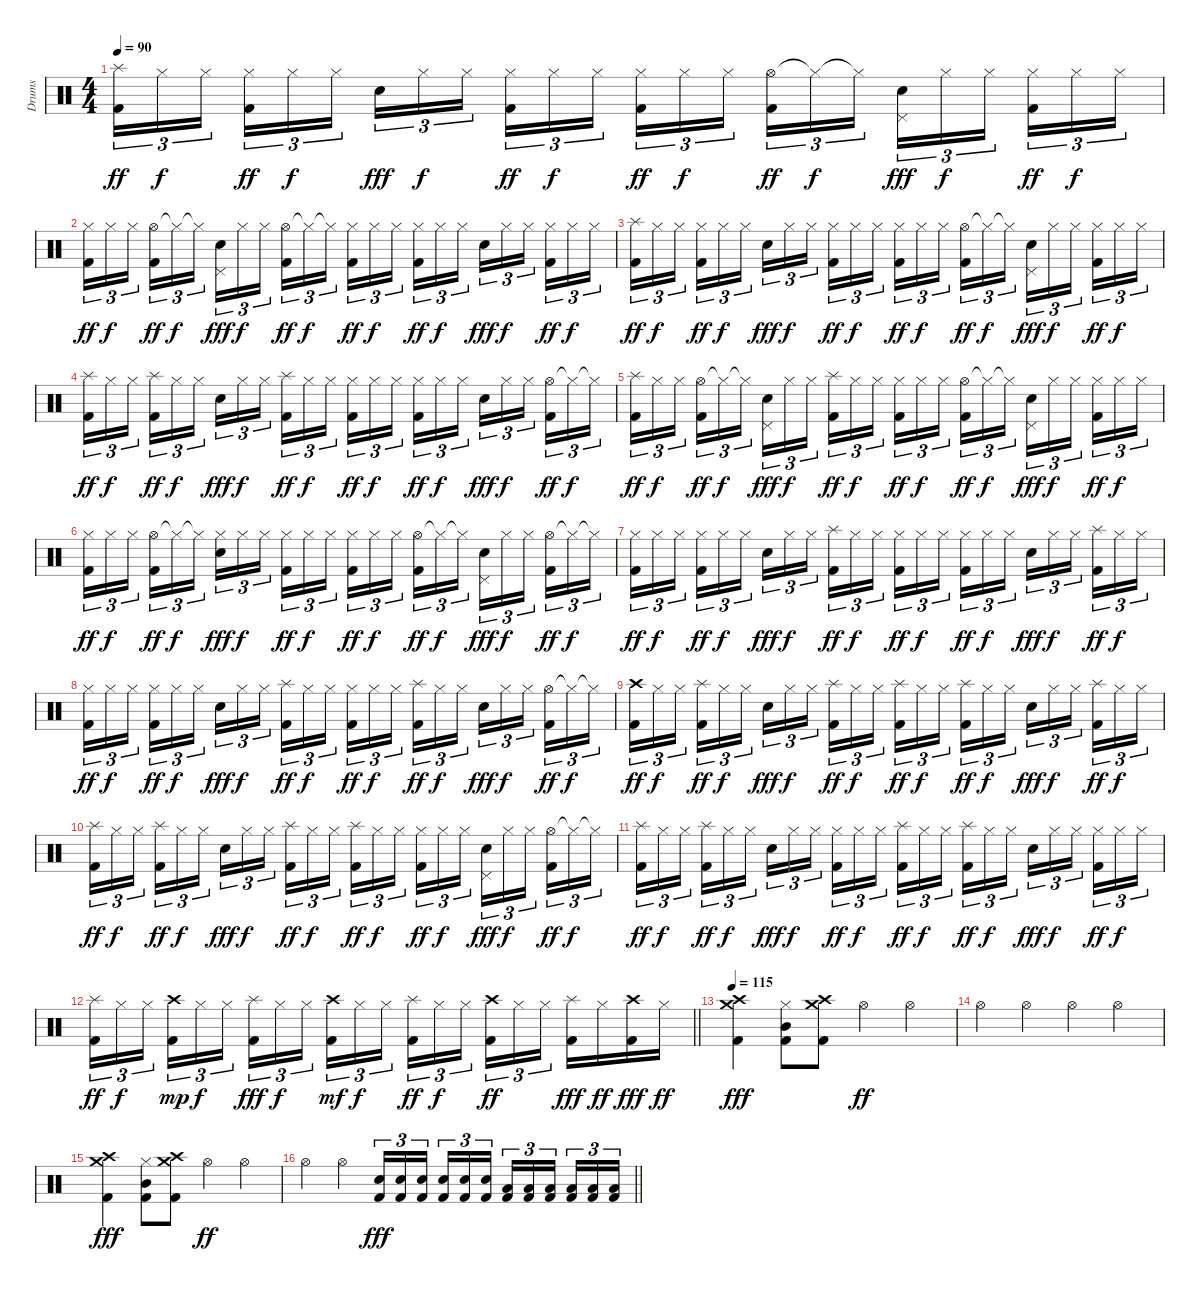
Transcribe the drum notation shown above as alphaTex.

\track ("Drums" "Drums") {instrument percussion}
\staff {score}
\articulation defaults
\ts (4 4)
\tempo 90
\clef neutral
\ks c
("Splash (hit)" "Kick (hit) 2").16{tu (3 2) dy ff} "Hi-Hat (closed)".16{tu (3 2) dy f} "Hi-Hat (closed)".16{tu (3 2) beam splitsecondary} ("Hi-Hat (closed)" "Kick (hit) 2").16{tu (3 2) dy ff} "Hi-Hat (closed)".16{tu (3 2) dy f} "Hi-Hat (closed)".16{tu (3 2)} "Snare (hit) 2".16{tu (3 2) dy fff} "Hi-Hat (closed)".16{tu (3 2) dy f} "Hi-Hat (closed)".16{tu (3 2) beam splitsecondary} ("Hi-Hat (closed)" "Kick (hit) 2").16{tu (3 2) dy ff} "Hi-Hat (closed)".16{tu (3 2) dy f} "Hi-Hat (closed)".16{tu (3 2)} ("Hi-Hat (closed)" "Kick (hit) 2").16{tu (3 2) dy ff} "Hi-Hat (closed)".16{tu (3 2) dy f} "Hi-Hat (closed)".16{tu (3 2) beam splitsecondary} ("Hi-Hat (open)" "Kick (hit) 2").16{tu (3 2) dy ff} "Hi-Hat (closed)"{t}.16{tu (3 2) dy f} "Hi-Hat (closed)"{t}.16{tu (3 2)} ("Pedal Hi-Hat (hit)" "Snare (hit) 2").16{tu (3 2) dy fff} "Hi-Hat (closed)".16{tu (3 2) dy f} "Hi-Hat (closed)".16{tu (3 2) beam splitsecondary} ("Hi-Hat (closed)" "Kick (hit) 2").16{tu (3 2) dy ff} "Hi-Hat (closed)".16{tu (3 2) dy f} "Hi-Hat (closed)".16{tu (3 2)} |
("Hi-Hat (closed)" "Kick (hit) 2").16{tu (3 2) dy ff} "Hi-Hat (closed)".16{tu (3 2) dy f} "Hi-Hat (closed)".16{tu (3 2) beam splitsecondary} ("Hi-Hat (open)" "Kick (hit) 2").16{tu (3 2) dy ff} "Hi-Hat (closed)"{t}.16{tu (3 2) dy f} "Hi-Hat (closed)"{t}.16{tu (3 2)} ("Pedal Hi-Hat (hit)" "Snare (hit) 2").16{tu (3 2) dy fff} "Hi-Hat (closed)".16{tu (3 2) dy f} "Hi-Hat (closed)".16{tu (3 2) beam splitsecondary} ("Hi-Hat (open)" "Kick (hit) 2").16{tu (3 2) dy ff} "Hi-Hat (closed)"{t}.16{tu (3 2) dy f} "Hi-Hat (closed)"{t}.16{tu (3 2)} ("Hi-Hat (closed)" "Kick (hit) 2").16{tu (3 2) dy ff} "Hi-Hat (closed)".16{tu (3 2) dy f} "Hi-Hat (closed)".16{tu (3 2) beam splitsecondary} ("Hi-Hat (closed)" "Kick (hit) 2").16{tu (3 2) dy ff} "Hi-Hat (closed)".16{tu (3 2) dy f} "Hi-Hat (closed)".16{tu (3 2)} "Snare (hit) 2".16{tu (3 2) dy fff} "Hi-Hat (closed)".16{tu (3 2) dy f} "Hi-Hat (closed)".16{tu (3 2) beam splitsecondary} ("Hi-Hat (closed)" "Kick (hit) 2").16{tu (3 2) dy ff} "Hi-Hat (closed)".16{tu (3 2) dy f} "Hi-Hat (closed)".16{tu (3 2)} |
("Splash (hit)" "Kick (hit) 2").16{tu (3 2) dy ff} "Hi-Hat (closed)".16{tu (3 2) dy f} "Hi-Hat (closed)".16{tu (3 2) beam splitsecondary} ("Hi-Hat (closed)" "Kick (hit) 2").16{tu (3 2) dy ff} "Hi-Hat (closed)".16{tu (3 2) dy f} "Hi-Hat (closed)".16{tu (3 2)} "Snare (hit) 2".16{tu (3 2) dy fff} "Hi-Hat (closed)".16{tu (3 2) dy f} "Hi-Hat (closed)".16{tu (3 2) beam splitsecondary} ("Hi-Hat (closed)" "Kick (hit) 2").16{tu (3 2) dy ff} "Hi-Hat (closed)".16{tu (3 2) dy f} "Hi-Hat (closed)".16{tu (3 2)} ("Hi-Hat (closed)" "Kick (hit) 2").16{tu (3 2) dy ff} "Hi-Hat (closed)".16{tu (3 2) dy f} "Hi-Hat (closed)".16{tu (3 2) beam splitsecondary} ("Hi-Hat (open)" "Kick (hit) 2").16{tu (3 2) dy ff} "Hi-Hat (closed)"{t}.16{tu (3 2) dy f} "Hi-Hat (closed)"{t}.16{tu (3 2)} ("Pedal Hi-Hat (hit)" "Snare (hit) 2").16{tu (3 2) dy fff} "Hi-Hat (closed)".16{tu (3 2) dy f} "Hi-Hat (closed)".16{tu (3 2) beam splitsecondary} ("Hi-Hat (closed)" "Kick (hit) 2").16{tu (3 2) dy ff} "Hi-Hat (closed)".16{tu (3 2) dy f} "Hi-Hat (closed)".16{tu (3 2)} |
("Splash (hit)" "Kick (hit) 2").16{tu (3 2) dy ff} "Hi-Hat (closed)".16{tu (3 2) dy f} "Hi-Hat (closed)".16{tu (3 2) beam splitsecondary} ("Splash (hit)" "Kick (hit) 2").16{tu (3 2) dy ff} "Hi-Hat (closed)".16{tu (3 2) dy f} "Hi-Hat (closed)".16{tu (3 2)} "Snare (hit) 2".16{tu (3 2) dy fff} "Hi-Hat (closed)".16{tu (3 2) dy f} "Hi-Hat (closed)".16{tu (3 2) beam splitsecondary} ("Splash (hit)" "Kick (hit) 2").16{tu (3 2) dy ff} "Hi-Hat (closed)".16{tu (3 2) dy f} "Hi-Hat (closed)".16{tu (3 2)} ("Hi-Hat (closed)" "Kick (hit) 2").16{tu (3 2) dy ff} "Hi-Hat (closed)".16{tu (3 2) dy f} "Hi-Hat (closed)".16{tu (3 2) beam splitsecondary} ("Hi-Hat (closed)" "Kick (hit) 2").16{tu (3 2) dy ff} "Hi-Hat (closed)".16{tu (3 2) dy f} "Hi-Hat (closed)".16{tu (3 2)} "Snare (hit) 2".16{tu (3 2) dy fff} "Hi-Hat (closed)".16{tu (3 2) dy f} "Hi-Hat (closed)".16{tu (3 2) beam splitsecondary} ("Hi-Hat (open)" "Kick (hit) 2").16{tu (3 2) dy ff} "Hi-Hat (closed)"{t}.16{tu (3 2) dy f} "Hi-Hat (closed)"{t}.16{tu (3 2)} |
("Splash (hit)" "Kick (hit) 2").16{tu (3 2) dy ff} "Hi-Hat (closed)".16{tu (3 2) dy f} "Hi-Hat (closed)".16{tu (3 2) beam splitsecondary} ("Hi-Hat (open)" "Kick (hit) 2").16{tu (3 2) dy ff} "Hi-Hat (closed)"{t}.16{tu (3 2) dy f} "Hi-Hat (closed)"{t}.16{tu (3 2)} ("Pedal Hi-Hat (hit)" "Snare (hit) 2").16{tu (3 2) dy fff} "Hi-Hat (closed)".16{tu (3 2) dy f} "Hi-Hat (closed)".16{tu (3 2) beam splitsecondary} ("Splash (hit)" "Kick (hit) 2").16{tu (3 2) dy ff} "Hi-Hat (closed)".16{tu (3 2) dy f} "Hi-Hat (closed)".16{tu (3 2)} ("Hi-Hat (closed)" "Kick (hit) 2").16{tu (3 2) dy ff} "Hi-Hat (closed)".16{tu (3 2) dy f} "Hi-Hat (closed)".16{tu (3 2) beam splitsecondary} ("Hi-Hat (open)" "Kick (hit) 2").16{tu (3 2) dy ff} "Hi-Hat (closed)"{t}.16{tu (3 2) dy f} "Hi-Hat (closed)"{t}.16{tu (3 2)} ("Pedal Hi-Hat (hit)" "Snare (hit) 2").16{tu (3 2) dy fff} "Hi-Hat (closed)".16{tu (3 2) dy f} "Hi-Hat (closed)".16{tu (3 2) beam splitsecondary} ("Hi-Hat (closed)" "Kick (hit) 2").16{tu (3 2) dy ff} "Hi-Hat (closed)".16{tu (3 2) dy f} "Hi-Hat (closed)".16{tu (3 2)} |
("Hi-Hat (closed)" "Kick (hit) 2").16{tu (3 2) dy ff} "Hi-Hat (closed)".16{tu (3 2) dy f} "Hi-Hat (closed)".16{tu (3 2) beam splitsecondary} ("Hi-Hat (open)" "Kick (hit) 2").16{tu (3 2) dy ff} "Hi-Hat (closed)"{t}.16{tu (3 2) dy f} "Hi-Hat (closed)"{t}.16{tu (3 2)} ("Hi-Hat (closed)" "Snare (hit) 2").16{tu (3 2) dy fff} "Hi-Hat (closed)".16{tu (3 2) dy f} "Hi-Hat (closed)".16{tu (3 2) beam splitsecondary} ("Hi-Hat (closed)" "Kick (hit) 2").16{tu (3 2) dy ff} "Hi-Hat (closed)".16{tu (3 2) dy f} "Hi-Hat (closed)".16{tu (3 2)} ("Hi-Hat (closed)" "Kick (hit) 2").16{tu (3 2) dy ff} "Hi-Hat (closed)".16{tu (3 2) dy f} "Hi-Hat (closed)".16{tu (3 2) beam splitsecondary} ("Hi-Hat (open)" "Kick (hit) 2").16{tu (3 2) dy ff} "Hi-Hat (closed)"{t}.16{tu (3 2) dy f} "Hi-Hat (closed)"{t}.16{tu (3 2)} ("Pedal Hi-Hat (hit)" "Snare (hit) 2").16{tu (3 2) dy fff} "Hi-Hat (closed)".16{tu (3 2) dy f} "Hi-Hat (closed)".16{tu (3 2) beam splitsecondary} ("Hi-Hat (open)" "Kick (hit) 2").16{tu (3 2) dy ff} "Hi-Hat (closed)"{t}.16{tu (3 2) dy f} "Hi-Hat (closed)"{t}.16{tu (3 2)} |
("Hi-Hat (closed)" "Kick (hit) 2").16{tu (3 2) dy ff} "Hi-Hat (closed)".16{tu (3 2) dy f} "Hi-Hat (closed)".16{tu (3 2) beam splitsecondary} ("Hi-Hat (closed)" "Kick (hit) 2").16{tu (3 2) dy ff} "Hi-Hat (closed)".16{tu (3 2) dy f} "Hi-Hat (closed)".16{tu (3 2)} "Snare (hit) 2".16{tu (3 2) dy fff} "Hi-Hat (closed)".16{tu (3 2) dy f} "Hi-Hat (closed)".16{tu (3 2) beam splitsecondary} ("Splash (hit)" "Kick (hit) 2").16{tu (3 2) dy ff} "Hi-Hat (closed)".16{tu (3 2) dy f} "Hi-Hat (closed)".16{tu (3 2)} ("Hi-Hat (closed)" "Kick (hit) 2").16{tu (3 2) dy ff} "Hi-Hat (closed)".16{tu (3 2) dy f} "Hi-Hat (closed)".16{tu (3 2) beam splitsecondary} ("Hi-Hat (closed)" "Kick (hit) 2").16{tu (3 2) dy ff} "Hi-Hat (closed)".16{tu (3 2) dy f} "Hi-Hat (closed)".16{tu (3 2)} "Snare (hit) 2".16{tu (3 2) dy fff} "Hi-Hat (closed)".16{tu (3 2) dy f} "Hi-Hat (closed)".16{tu (3 2) beam splitsecondary} ("Splash (hit)" "Kick (hit) 2").16{tu (3 2) dy ff} "Hi-Hat (closed)".16{tu (3 2) dy f} "Hi-Hat (closed)".16{tu (3 2)} |
("Hi-Hat (closed)" "Kick (hit) 2").16{tu (3 2) dy ff} "Hi-Hat (closed)".16{tu (3 2) dy f} "Hi-Hat (closed)".16{tu (3 2) beam splitsecondary} ("Hi-Hat (closed)" "Kick (hit) 2").16{tu (3 2) dy ff} "Hi-Hat (closed)".16{tu (3 2) dy f} "Hi-Hat (closed)".16{tu (3 2)} "Snare (hit) 2".16{tu (3 2) dy fff} "Hi-Hat (closed)".16{tu (3 2) dy f} "Hi-Hat (closed)".16{tu (3 2) beam splitsecondary} ("Splash (hit)" "Kick (hit) 2").16{tu (3 2) dy ff} "Hi-Hat (closed)".16{tu (3 2) dy f} "Hi-Hat (closed)".16{tu (3 2)} ("Hi-Hat (closed)" "Kick (hit) 2").16{tu (3 2) dy ff} "Hi-Hat (closed)".16{tu (3 2) dy f} "Hi-Hat (closed)".16{tu (3 2) beam splitsecondary} ("Splash (hit)" "Kick (hit) 2").16{tu (3 2) dy ff} "Hi-Hat (closed)".16{tu (3 2) dy f} "Hi-Hat (closed)".16{tu (3 2)} "Snare (hit) 2".16{tu (3 2) dy fff} "Hi-Hat (closed)".16{tu (3 2) dy f} "Hi-Hat (closed)".16{tu (3 2) beam splitsecondary} ("Hi-Hat (open)" "Kick (hit) 2").16{tu (3 2) dy ff} "Hi-Hat (closed)"{t}.16{tu (3 2) dy f} "Hi-Hat (closed)"{t}.16{tu (3 2)} |
("Crash high (hit)" "Kick (hit) 2").16{tu (3 2) dy ff} "Hi-Hat (closed)".16{tu (3 2) dy f} "Hi-Hat (closed)".16{tu (3 2) beam splitsecondary} ("Splash (hit)" "Kick (hit) 2").16{tu (3 2) dy ff} "Hi-Hat (closed)".16{tu (3 2) dy f} "Hi-Hat (closed)".16{tu (3 2)} "Snare (hit) 2".16{tu (3 2) dy fff} "Hi-Hat (closed)".16{tu (3 2) dy f} "Hi-Hat (closed)".16{tu (3 2) beam splitsecondary} ("Splash (hit)" "Kick (hit) 2").16{tu (3 2) dy ff} "Hi-Hat (closed)".16{tu (3 2) dy f} "Hi-Hat (closed)".16{tu (3 2)} ("Splash (hit)" "Kick (hit) 2").16{tu (3 2) dy ff} "Hi-Hat (closed)".16{tu (3 2) dy f} "Hi-Hat (closed)".16{tu (3 2) beam splitsecondary} ("Splash (hit)" "Kick (hit) 2").16{tu (3 2) dy ff} "Hi-Hat (closed)".16{tu (3 2) dy f} "Hi-Hat (closed)".16{tu (3 2)} "Snare (hit) 2".16{tu (3 2) dy fff} "Hi-Hat (closed)".16{tu (3 2) dy f} "Hi-Hat (closed)".16{tu (3 2) beam splitsecondary} ("Splash (hit)" "Kick (hit) 2").16{tu (3 2) dy ff} "Hi-Hat (closed)".16{tu (3 2) dy f} "Hi-Hat (closed)".16{tu (3 2)} |
("Splash (hit)" "Kick (hit) 2").16{tu (3 2) dy ff} "Hi-Hat (closed)".16{tu (3 2) dy f} "Hi-Hat (closed)".16{tu (3 2) beam splitsecondary} ("Splash (hit)" "Kick (hit) 2").16{tu (3 2) dy ff} "Hi-Hat (closed)".16{tu (3 2) dy f} "Hi-Hat (closed)".16{tu (3 2)} "Snare (hit) 2".16{tu (3 2) dy fff} "Hi-Hat (closed)".16{tu (3 2) dy f} "Hi-Hat (closed)".16{tu (3 2) beam splitsecondary} ("Splash (hit)" "Kick (hit) 2").16{tu (3 2) dy ff} "Hi-Hat (closed)".16{tu (3 2) dy f} "Hi-Hat (closed)".16{tu (3 2)} ("Splash (hit)" "Kick (hit) 2").16{tu (3 2) dy ff} "Hi-Hat (closed)".16{tu (3 2) dy f} "Hi-Hat (closed)".16{tu (3 2) beam splitsecondary} ("Hi-Hat (closed)" "Kick (hit) 2").16{tu (3 2) dy ff} "Hi-Hat (closed)".16{tu (3 2) dy f} "Hi-Hat (closed)".16{tu (3 2)} ("Pedal Hi-Hat (hit)" "Snare (hit) 2").16{tu (3 2) dy fff} "Hi-Hat (closed)".16{tu (3 2) dy f} "Hi-Hat (closed)".16{tu (3 2) beam splitsecondary} ("Hi-Hat (open)" "Kick (hit) 2").16{tu (3 2) dy ff} "Hi-Hat (closed)"{t}.16{tu (3 2) dy f} "Hi-Hat (closed)"{t}.16{tu (3 2)} |
("Splash (hit)" "Kick (hit) 2").16{tu (3 2) dy ff} "Hi-Hat (closed)".16{tu (3 2) dy f} "Hi-Hat (closed)".16{tu (3 2) beam splitsecondary} ("Splash (hit)" "Kick (hit) 2").16{tu (3 2) dy ff} "Hi-Hat (closed)".16{tu (3 2) dy f} "Hi-Hat (closed)".16{tu (3 2)} "Snare (hit) 2".16{tu (3 2) dy fff} "Hi-Hat (closed)".16{tu (3 2) dy f} "Hi-Hat (closed)".16{tu (3 2) beam splitsecondary} ("Hi-Hat (closed)" "Kick (hit) 2").16{tu (3 2) dy ff} "Hi-Hat (closed)".16{tu (3 2) dy f} "Hi-Hat (closed)".16{tu (3 2)} ("Splash (hit)" "Kick (hit) 2").16{tu (3 2) dy ff} "Hi-Hat (closed)".16{tu (3 2) dy f} "Hi-Hat (closed)".16{tu (3 2) beam splitsecondary} ("Splash (hit)" "Kick (hit) 2").16{tu (3 2) dy ff} "Hi-Hat (closed)".16{tu (3 2) dy f} "Hi-Hat (closed)".16{tu (3 2)} "Snare (hit) 2".16{tu (3 2) dy fff} "Hi-Hat (closed)".16{tu (3 2) dy f} "Hi-Hat (closed)".16{tu (3 2) beam splitsecondary} ("Hi-Hat (closed)" "Kick (hit) 2").16{tu (3 2) dy ff} "Hi-Hat (closed)".16{tu (3 2) dy f} "Hi-Hat (closed)".16{tu (3 2)} |
\barLineRight lightlight
("Splash (hit)" "Kick (hit) 2").16{tu (3 2) dy ff} "Hi-Hat (closed)".16{tu (3 2) dy f} "Hi-Hat (closed)".16{tu (3 2) beam splitsecondary} ("Crash high (hit)" "Kick (hit) 2").16{tu (3 2) dy mp} "Hi-Hat (closed)".16{tu (3 2) dy f} "Hi-Hat (closed)".16{tu (3 2)} ("Splash (hit)" "Kick (hit) 2").16{tu (3 2) dy fff} "Hi-Hat (closed)".16{tu (3 2) dy f} "Hi-Hat (closed)".16{tu (3 2) beam splitsecondary} ("Crash high (hit)" "Kick (hit) 2").16{tu (3 2) dy mf} "Hi-Hat (closed)".16{tu (3 2) dy f} "Hi-Hat (closed)".16{tu (3 2)} ("Splash (hit)" "Kick (hit) 2").16{tu (3 2) dy ff} "Hi-Hat (closed)".16{tu (3 2) dy f} "Hi-Hat (closed)".16{tu (3 2) beam splitsecondary} ("Crash high (hit)" "Kick (hit) 2").16{tu (3 2) dy ff} "Hi-Hat (closed)".16{tu (3 2)} "Hi-Hat (closed)".16{tu (3 2)} ("Splash (hit)" "Kick (hit) 2").16{dy fff} "Hi-Hat (closed)".16{dy ff} ("Crash high (hit)" "Kick (hit) 2").16{dy fff} "Hi-Hat (closed)".16{dy ff} |
\section ("" "")
\tempo 115
("Crash medium (hit)" "Crash high (hit)" "Kick (hit) 2").4{dy fff} ("Hi-Hat (closed)" "Mid Tom (hit)" "Kick (hit) 2").8 ("Crash medium (hit)" "Crash high (hit)" "Kick (hit) 2").8 "Hi-Hat (open)".4{dy ff} "Hi-Hat (open)".4 |
"Hi-Hat (open)".4 "Hi-Hat (open)".4 "Hi-Hat (open)".4 "Hi-Hat (open)".4 |
("Crash medium (hit)" "Crash high (hit)" "Kick (hit) 2").4{dy fff} ("Hi-Hat (closed)" "Mid Tom (hit)" "Kick (hit) 2").8 ("Crash medium (hit)" "Crash high (hit)" "Kick (hit) 2").8 "Hi-Hat (open)".4{dy ff} "Hi-Hat (open)".4 |
\barLineRight lightlight "Hi-Hat (open)".4 "Hi-Hat (open)".4
("Snare (hit) 2" "Kick (hit) 2").16{tu (3 2) dy fff} ("Snare (hit) 2" "Kick (hit) 2").16{tu (3 2)} ("Snare (hit) 2" "Kick (hit) 2").16{tu (3 2) beam splitsecondary} ("Snare (hit) 2" "Kick (hit) 2").16{tu (3 2)} ("Snare (hit) 2" "Kick (hit) 2").16{tu (3 2)} ("Snare (hit) 2" "Kick (hit) 2").16{tu (3 2)} ("Low Tom (hit)" "Kick (hit) 2").16{tu (3 2)} ("Low Tom (hit)" "Kick (hit) 2").16{tu (3 2)} ("Low Tom (hit)" "Kick (hit) 2").16{tu (3 2) beam splitsecondary} ("Low Tom (hit)" "Kick (hit) 2").16{tu (3 2)} ("Low Tom (hit)" "Kick (hit) 2").16{tu (3 2)} ("Low Tom (hit)" "Kick (hit) 2").16{tu (3 2)}
